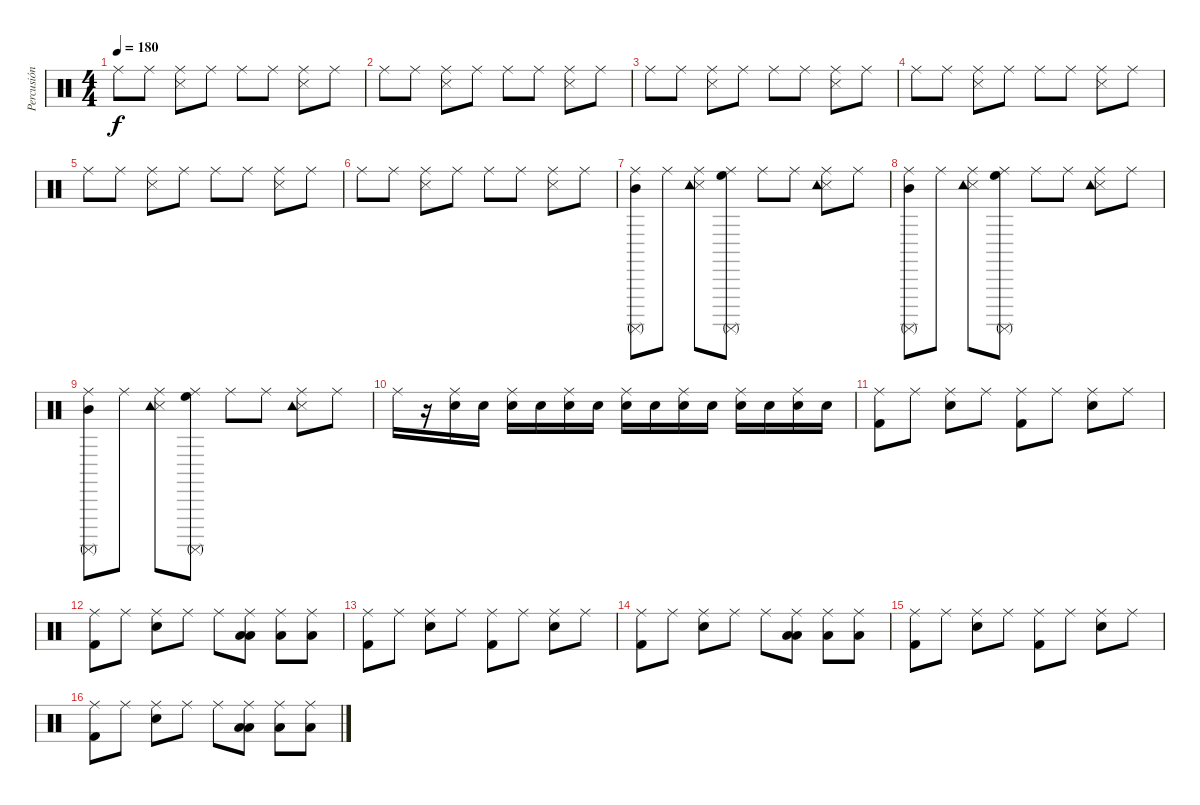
\track ("Percusión" "Percusión") {instrument percussion}
\staff {score}
\articulation defaults
\ts (4 4)
\tempo 180
\clef neutral
\ks c "Ride (middle)".8{dy f} "Ride (middle)".8
("Snare (side stick) 3" "Ride (middle)").8 "Ride (middle)".8 "Ride (middle)".8 "Ride (middle)".8 ("Snare (side stick) 3" "Ride (middle)").8 "Ride (middle)".8 |
"Ride (middle)".8 "Ride (middle)".8 ("Snare (side stick) 3" "Ride (middle)").8 "Ride (middle)".8 "Ride (middle)".8 "Ride (middle)".8 ("Snare (side stick) 3" "Ride (middle)").8 "Ride (middle)".8 |
"Ride (middle)".8 "Ride (middle)".8 ("Snare (side stick) 3" "Ride (middle)").8 "Ride (middle)".8 "Ride (middle)".8 "Ride (middle)".8 ("Snare (side stick) 3" "Ride (middle)").8 "Ride (middle)".8 |
"Ride (middle)".8 "Ride (middle)".8 ("Snare (side stick) 3" "Ride (middle)").8 "Ride (middle)".8 "Ride (middle)".8 "Ride (middle)".8 ("Snare (side stick) 3" "Ride (middle)").8 "Ride (middle)".8 |
"Ride (middle)".8 "Ride (middle)".8 ("Snare (side stick) 3" "Ride (middle)").8 "Ride (middle)".8 "Ride (middle)".8 "Ride (middle)".8 ("Snare (side stick) 3" "Ride (middle)").8 "Ride (middle)".8 |
"Ride (middle)".8 "Ride (middle)".8 ("Snare (side stick) 3" "Ride (middle)").8 "Ride (middle)".8 "Ride (middle)".8 "Ride (middle)".8 ("Snare (side stick) 3" "Ride (middle)").8 "Ride (middle)".8 |
("Ride (middle)" "Surdo (mute)" "Mid Tom (hit)").8 "Ride (middle)".8 ("Snare (side stick) 3" "Ride (middle)" "Tambourine (hit)").8 ("Ride (middle)" "Surdo (mute)" "High Floor Tom (hit)").8 "Ride (middle)".8 "Ride (middle)".8 ("Snare (side stick) 3" "Ride (middle)" "Tambourine (hit)").8 "Ride (middle)".8 |
("Ride (middle)" "Surdo (mute)" "Mid Tom (hit)").8 "Ride (middle)".8 ("Snare (side stick) 3" "Ride (middle)" "Tambourine (hit)").8 ("Ride (middle)" "Surdo (mute)" "High Floor Tom (hit)").8 "Ride (middle)".8 "Ride (middle)".8 ("Snare (side stick) 3" "Ride (middle)" "Tambourine (hit)").8 "Ride (middle)".8 |
("Ride (middle)" "Surdo (mute)" "Mid Tom (hit)").8 "Ride (middle)".8 ("Snare (side stick) 3" "Ride (middle)" "Tambourine (hit)").8 ("Ride (middle)" "Surdo (mute)" "High Floor Tom (hit)").8 "Ride (middle)".8 "Ride (middle)".8 ("Snare (side stick) 3" "Ride (middle)" "Tambourine (hit)").8 "Ride (middle)".8 |
"Ride (middle)".16 r.16 ("Ride (middle)" "Electric Snare (hit)").16 "Electric Snare (hit)".16 ("Ride (middle)" "Electric Snare (hit)").16 "Electric Snare (hit)".16 ("Ride (middle)" "Electric Snare (hit)").16 "Electric Snare (hit)".16 ("Ride (middle)" "Electric Snare (hit)").16 "Electric Snare (hit)".16 ("Ride (middle)" "Electric Snare (hit)").16 "Electric Snare (hit)".16 ("Ride (middle)" "Electric Snare (hit)").16 "Electric Snare (hit)".16 ("Ride (middle)" "Electric Snare (hit)").16 "Electric Snare (hit)".16 |
("Kick (hit) 2" "Ride (middle)").8 "Ride (middle)".8 ("Electric Snare (hit)" "Ride (middle)").8 "Ride (middle)".8 ("Kick (hit) 2" "Ride (middle)").8 "Ride (middle)".8 ("Electric Snare (hit)" "Ride (middle)").8 "Ride (middle)".8 |
("Kick (hit) 2" "Ride (middle)").8 "Ride (middle)".8 ("Electric Snare (hit)" "Ride (middle)").8 "Ride (middle)".8 "Ride (middle)".8 ("Low Floor Tom (hit)" "Ride (middle)" "Low Tom (hit)").8 ("Ride (middle)" "Low Tom (hit)").8 ("Ride (middle)" "Low Tom (hit)").8 |
("Kick (hit) 2" "Ride (middle)").8 "Ride (middle)".8 ("Electric Snare (hit)" "Ride (middle)").8 "Ride (middle)".8 ("Kick (hit) 2" "Ride (middle)").8 "Ride (middle)".8 ("Electric Snare (hit)" "Ride (middle)").8 "Ride (middle)".8 |
("Kick (hit) 2" "Ride (middle)").8 "Ride (middle)".8 ("Electric Snare (hit)" "Ride (middle)").8 "Ride (middle)".8 "Ride (middle)".8 ("Low Floor Tom (hit)" "Ride (middle)" "Low Tom (hit)").8 ("Ride (middle)" "Low Tom (hit)").8 ("Ride (middle)" "Low Tom (hit)").8 |
("Kick (hit) 2" "Ride (middle)").8 "Ride (middle)".8 ("Electric Snare (hit)" "Ride (middle)").8 "Ride (middle)".8 ("Kick (hit) 2" "Ride (middle)").8 "Ride (middle)".8 ("Electric Snare (hit)" "Ride (middle)").8 "Ride (middle)".8 |
("Kick (hit) 2" "Ride (middle)").8 "Ride (middle)".8 ("Electric Snare (hit)" "Ride (middle)").8 "Ride (middle)".8 "Ride (middle)".8 ("Low Floor Tom (hit)" "Ride (middle)" "Low Tom (hit)").8 ("Ride (middle)" "Low Tom (hit)").8 ("Ride (middle)" "Low Tom (hit)").8
